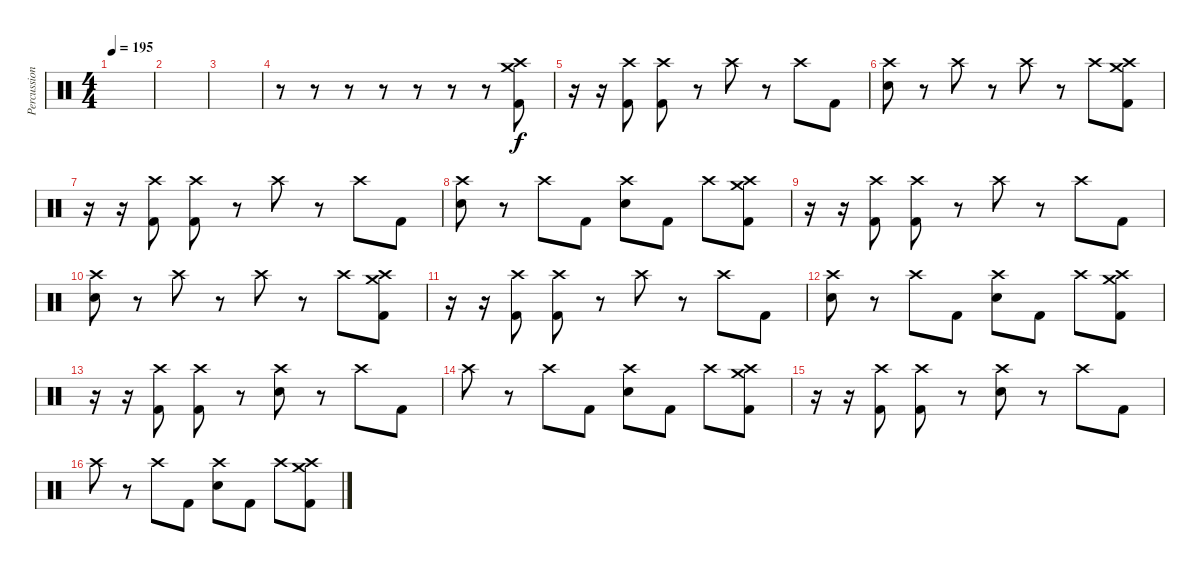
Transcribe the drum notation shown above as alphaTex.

\track ("Percussion" "Percussion") {instrument percussion}
\staff {score}
\articulation defaults
\ts (4 4)
\tempo 195
\clef neutral
\ks c
|
|
|
r.8 r.8 r.8 r.8 r.8 r.8 r.8 ("Crash high (hit)" "Crash medium (hit)" "Kick (hit) 2").8 |
r.16 r.16 ("Crash high (hit)" "Kick (hit) 2").8 ("Crash high (hit)" "Kick (hit) 2").8 r.8 "Crash high (hit)".8 r.8 "Crash high (hit)".8 "Kick (hit) 2".8 |
("Crash high (hit)" "Electric Snare (hit)").8 r.8 "Crash high (hit)".8 r.8 "Crash high (hit)".8 r.8 "Crash high (hit)".8 ("Crash high (hit)" "Crash medium (hit)" "Kick (hit) 2").8 |
r.16 r.16 ("Crash high (hit)" "Kick (hit) 2").8 ("Crash high (hit)" "Kick (hit) 2").8 r.8 "Crash high (hit)".8 r.8 "Crash high (hit)".8 "Kick (hit) 2".8 |
("Crash high (hit)" "Electric Snare (hit)").8 r.8 "Crash high (hit)".8 "Kick (hit) 2".8 ("Crash high (hit)" "Electric Snare (hit)").8 "Kick (hit) 2".8 "Crash high (hit)".8 ("Crash high (hit)" "Crash medium (hit)" "Kick (hit) 2").8 |
r.16 r.16 ("Crash high (hit)" "Kick (hit) 2").8 ("Crash high (hit)" "Kick (hit) 2").8 r.8 "Crash high (hit)".8 r.8 "Crash high (hit)".8 "Kick (hit) 2".8 |
("Crash high (hit)" "Electric Snare (hit)").8 r.8 "Crash high (hit)".8 r.8 "Crash high (hit)".8 r.8 "Crash high (hit)".8 ("Crash high (hit)" "Crash medium (hit)" "Kick (hit) 2").8 |
r.16 r.16 ("Crash high (hit)" "Kick (hit) 2").8 ("Crash high (hit)" "Kick (hit) 2").8 r.8 "Crash high (hit)".8 r.8 "Crash high (hit)".8 "Kick (hit) 2".8 |
("Crash high (hit)" "Electric Snare (hit)").8 r.8 "Crash high (hit)".8 "Kick (hit) 2".8 ("Crash high (hit)" "Electric Snare (hit)").8 "Kick (hit) 2".8 "Crash high (hit)".8 ("Crash high (hit)" "Crash medium (hit)" "Kick (hit) 2").8 |
r.16 r.16 ("Crash high (hit)" "Kick (hit) 2").8 ("Crash high (hit)" "Kick (hit) 2").8 r.8 ("Crash high (hit)" "Electric Snare (hit)").8 r.8 "Crash high (hit)".8 "Kick (hit) 2".8 |
"Crash high (hit)".8 r.8 "Crash high (hit)".8 "Kick (hit) 2".8 ("Crash high (hit)" "Electric Snare (hit)").8 "Kick (hit) 2".8 "Crash high (hit)".8 ("Crash high (hit)" "Crash medium (hit)" "Kick (hit) 2").8 |
r.16 r.16 ("Crash high (hit)" "Kick (hit) 2").8 ("Crash high (hit)" "Kick (hit) 2").8 r.8 ("Crash high (hit)" "Electric Snare (hit)").8 r.8 "Crash high (hit)".8 "Kick (hit) 2".8 |
"Crash high (hit)".8 r.8 "Crash high (hit)".8 "Kick (hit) 2".8 ("Crash high (hit)" "Electric Snare (hit)").8 "Kick (hit) 2".8 "Crash high (hit)".8 ("Crash high (hit)" "Crash medium (hit)" "Kick (hit) 2").8
